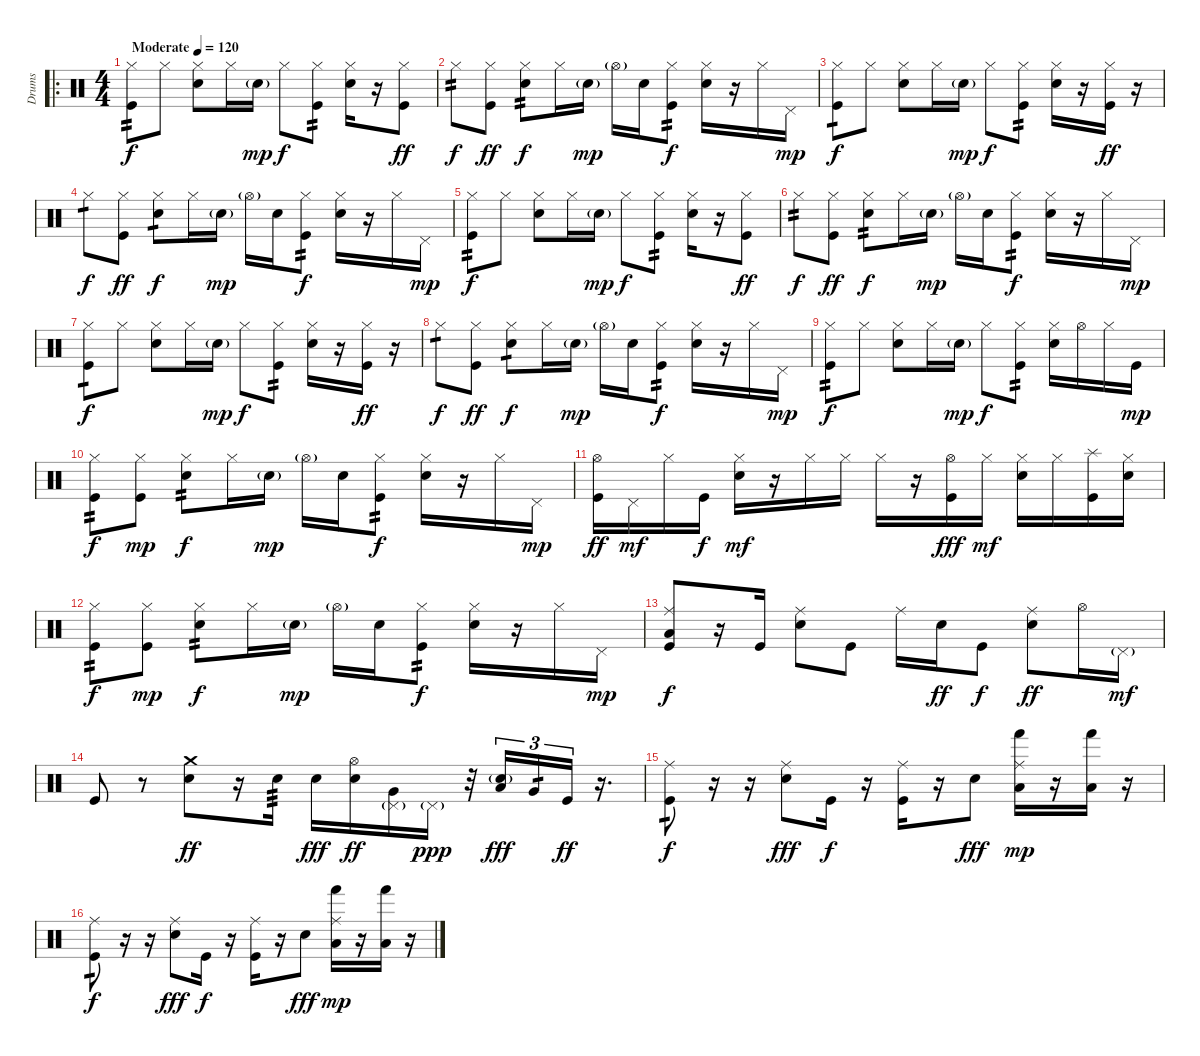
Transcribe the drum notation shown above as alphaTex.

\track ("Drums" "Drums") {instrument percussion}
\staff {score}
\articulation defaults
\ro
\ts (4 4)
\tempo (120 "Moderate")
\clef neutral
\ks c
("Hi-Hat (closed)" "Kick (hit)").8{tp 2 dy f} "Hi-Hat (closed)".8 ("Hi-Hat (closed)" "Electric Snare (hit)").8 "Hi-Hat (closed)".16 "Electric Snare (hit)"{g}.16{dy mp} "Hi-Hat (closed)".8{dy f} ("Hi-Hat (closed)" "Kick (hit)").8{tp 2} ("Hi-Hat (closed)" "Electric Snare (hit)").16 r.16 ("Hi-Hat (closed)" "Kick (hit)").8{dy ff} |
"Hi-Hat (closed)".8{tp 2 dy f} ("Hi-Hat (closed)" "Kick (hit)").8{dy ff} ("Hi-Hat (closed)" "Electric Snare (hit)").8{tp 2 dy f} "Hi-Hat (closed)".16 "Electric Snare (hit)"{g}.16{dy mp} "Hi-Hat (open)"{g}.16 "Electric Snare (hit)".16 ("Hi-Hat (closed)" "Kick (hit)").8{tp 2 dy f} ("Hi-Hat (closed)" "Electric Snare (hit)").16 r.16 "Hi-Hat (closed)".16 "Pedal Hi-Hat (hit)".16{dy mp} |
("Hi-Hat (closed)" "Kick (hit)").8{tp 1 dy f} "Hi-Hat (closed)".8 ("Hi-Hat (closed)" "Electric Snare (hit)").8 "Hi-Hat (closed)".16 "Electric Snare (hit)"{g}.16{dy mp} "Hi-Hat (closed)".8{dy f} ("Hi-Hat (closed)" "Kick (hit)").8{tp 2} ("Hi-Hat (closed)" "Electric Snare (hit)").16 r.16 ("Hi-Hat (closed)" "Kick (hit)").16{dy ff} r.16 |
"Hi-Hat (closed)".8{tp 1 dy f} ("Hi-Hat (closed)" "Kick (hit)").8{dy ff} ("Hi-Hat (closed)" "Electric Snare (hit)").8{tp 1 dy f} "Hi-Hat (closed)".16 "Electric Snare (hit)"{g}.16{dy mp} "Hi-Hat (open)"{g}.16 "Electric Snare (hit)".16 ("Hi-Hat (closed)" "Kick (hit)").8{tp 2 dy f} ("Hi-Hat (closed)" "Electric Snare (hit)").16 r.16 "Hi-Hat (closed)".16 "Pedal Hi-Hat (hit)".16{dy mp} |
("Hi-Hat (closed)" "Kick (hit)").8{tp 2 dy f} "Hi-Hat (closed)".8 ("Hi-Hat (closed)" "Electric Snare (hit)").8 "Hi-Hat (closed)".16 "Electric Snare (hit)"{g}.16{dy mp} "Hi-Hat (closed)".8{dy f} ("Hi-Hat (closed)" "Kick (hit)").8{tp 2} ("Hi-Hat (closed)" "Electric Snare (hit)").16 r.16 ("Hi-Hat (closed)" "Kick (hit)").8{dy ff} |
"Hi-Hat (closed)".8{tp 2 dy f} ("Hi-Hat (closed)" "Kick (hit)").8{dy ff} ("Hi-Hat (closed)" "Electric Snare (hit)").8{tp 2 dy f} "Hi-Hat (closed)".16 "Electric Snare (hit)"{g}.16{dy mp} "Hi-Hat (open)"{g}.16 "Electric Snare (hit)".16 ("Hi-Hat (closed)" "Kick (hit)").8{tp 2 dy f} ("Hi-Hat (closed)" "Electric Snare (hit)").16 r.16 "Hi-Hat (closed)".16 "Pedal Hi-Hat (hit)".16{dy mp} |
("Hi-Hat (closed)" "Kick (hit)").8{tp 1 dy f} "Hi-Hat (closed)".8 ("Hi-Hat (closed)" "Electric Snare (hit)").8 "Hi-Hat (closed)".16 "Electric Snare (hit)"{g}.16{dy mp} "Hi-Hat (closed)".8{dy f} ("Hi-Hat (closed)" "Kick (hit)").8{tp 2} ("Hi-Hat (closed)" "Electric Snare (hit)").16 r.16 ("Hi-Hat (closed)" "Kick (hit)").16{dy ff} r.16 |
"Hi-Hat (closed)".8{tp 1 dy f} ("Hi-Hat (closed)" "Kick (hit)").8{dy ff} ("Hi-Hat (closed)" "Electric Snare (hit)").8{tp 1 dy f} "Hi-Hat (closed)".16 "Electric Snare (hit)"{g}.16{dy mp} "Hi-Hat (open)"{g}.16 "Electric Snare (hit)".16 ("Hi-Hat (closed)" "Kick (hit)").8{tp 2 dy f} ("Hi-Hat (closed)" "Electric Snare (hit)").16 r.16 "Hi-Hat (closed)".16 "Pedal Hi-Hat (hit)".16{dy mp} |
("Hi-Hat (closed)" "Kick (hit)").8{tp 2 dy f} "Hi-Hat (closed)".8 ("Hi-Hat (closed)" "Electric Snare (hit)").8 "Hi-Hat (closed)".16 "Electric Snare (hit)"{g}.16{dy mp} "Hi-Hat (closed)".8{dy f} ("Hi-Hat (closed)" "Kick (hit)").8{tp 2} ("Hi-Hat (closed)" "Electric Snare (hit)").16 "Hi-Hat (open)".16 "Hi-Hat (closed)".16 "Kick (hit)".16{dy mp} |
("Hi-Hat (closed)" "Kick (hit)").8{tp 2 dy f} ("Hi-Hat (closed)" "Kick (hit)").8{dy mp} ("Hi-Hat (closed)" "Electric Snare (hit)").8{tp 2 dy f} "Hi-Hat (closed)".16 "Electric Snare (hit)"{g}.16{dy mp} "Hi-Hat (open)"{g}.16 "Electric Snare (hit)".16 ("Hi-Hat (closed)" "Kick (hit)").8{tp 2 dy f} ("Hi-Hat (closed)" "Electric Snare (hit)").16 r.16 "Hi-Hat (closed)".16 "Pedal Hi-Hat (hit)".16{dy mp} |
("Hi-Hat (open)" "Kick (hit)").16{dy ff} "Pedal Hi-Hat (hit)".16{dy mf} "Hi-Hat (closed)".16 "Kick (hit)".16{dy f} ("Hi-Hat (closed)" "Electric Snare (hit)").16{dy mf} r.16 "Hi-Hat (closed)".16 "Hi-Hat (closed)".16 "Hi-Hat (closed)".16 r.16 ("Hi-Hat (open)" "Kick (hit)").16{dy fff} "Hi-Hat (closed)".16{dy mf} ("Hi-Hat (closed)" "Electric Snare (hit)").16 "Hi-Hat (closed)".16 ("Splash (hit)" "Kick (hit)").16 ("Hi-Hat (closed)" "Snare (hit)").16 |
("Hi-Hat (closed)" "Kick (hit)").8{tp 2 dy f} ("Hi-Hat (closed)" "Kick (hit)").8{dy mp} ("Hi-Hat (closed)" "Electric Snare (hit)").8{tp 2 dy f} "Hi-Hat (closed)".16 "Electric Snare (hit)"{g}.16{dy mp} "Hi-Hat (open)"{g}.16 "Electric Snare (hit)".16 ("Hi-Hat (closed)" "Kick (hit)").8{tp 2 dy f} ("Hi-Hat (closed)" "Electric Snare (hit)").16 r.16 "Hi-Hat (closed)".16 "Pedal Hi-Hat (hit)".16{dy mp} |
("Ride (middle)" "Low Tom (hit)" "Kick (hit)").8{dy f} r.16 "Kick (hit)".16 ("Ride (middle)" "Electric Snare (hit)").8 "Kick (hit)".8 "Ride (middle)".16 "Electric Snare (hit)".16{dy ff} "Kick (hit)".8{dy f} ("Ride (middle)" "Electric Snare (hit)").8{dy ff} "Hi-Hat (open)".16 "Pedal Hi-Hat (hit)"{g}.16{dy mf} |
"Kick (hit)".8 r.8 ("Crash medium (hit)" "Electric Snare (hit)").8{dy ff} r.16 "Electric Snare (hit)".16{tp 3} "Electric Snare (hit)".16{dy fff} ("Hi-Hat (open)" "Electric Snare (hit)").16{dy ff} ("Pedal Hi-Hat (hit)"{g} "Very Low Tom (hit)").16 "Pedal Hi-Hat (hit)"{g}.16{dy ppp} r.32 ("Snare (hit) 2"{g} "Low Tom (hit)").16{tu (3 2) dy fff} "Very Low Tom (hit)".16{tu (3 2) tp 1} "Kick (hit)".16{tu (3 2) dy ff} r.16{d} |
("Ride (middle)" "Kick (hit)").8{tp 1 dy f} r.16 r.16 ("Ride (middle)" "Electric Snare (hit)").8{dy fff} "Kick (hit)".16{dy f} r.16 ("Ride (middle)" "Kick (hit)").16 r.16 "Electric Snare (hit)".8{dy fff} ("Ride (middle)" "Low Tom (hit)" "Hand (hit)").16{dy mp} r.16 ("Low Tom (hit)" "Hand (hit)").16 r.16 |
("Ride (middle)" "Kick (hit)").8{tp 1 dy f} r.16 r.16 ("Ride (middle)" "Electric Snare (hit)").8{dy fff} "Kick (hit)".16{dy f} r.16 ("Ride (middle)" "Kick (hit)").16 r.16 "Electric Snare (hit)".8{dy fff} ("Ride (middle)" "Low Tom (hit)" "Hand (hit)").16{dy mp} r.16 ("Low Tom (hit)" "Hand (hit)").16 r.16
